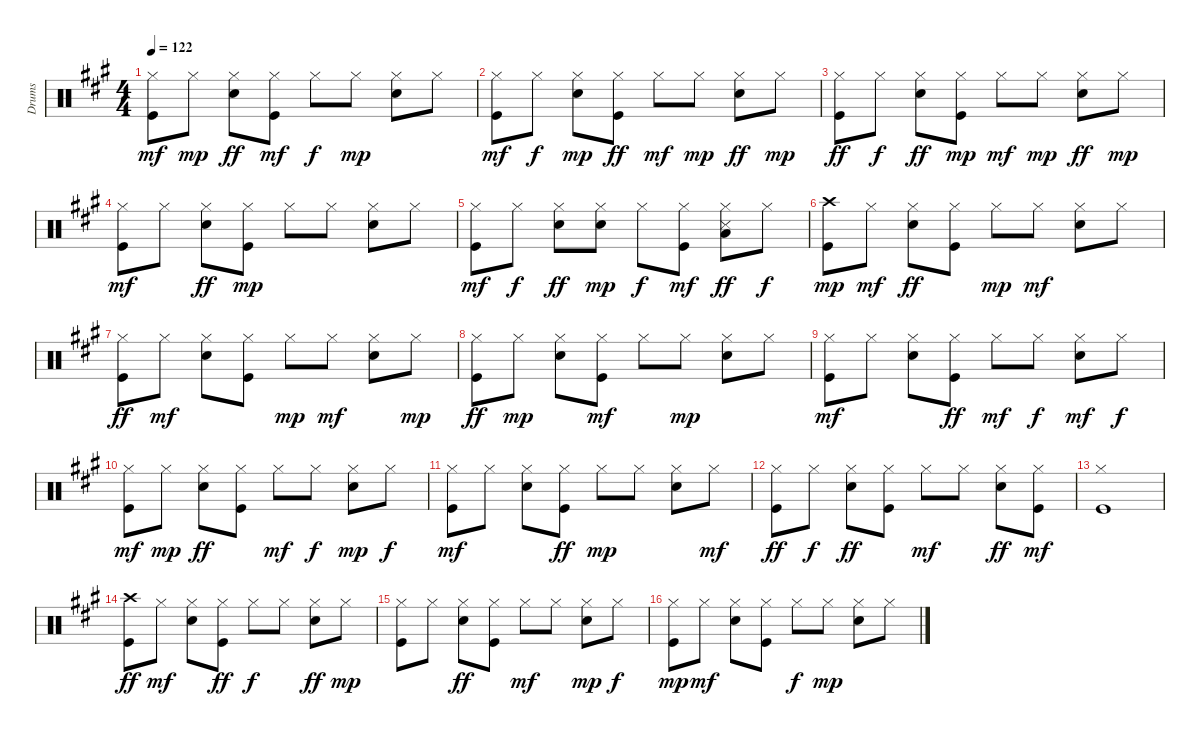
\track ("Drums" "Drums") {instrument percussion}
\staff {score}
\articulation defaults
\ts (4 4)
\tempo 122
\clef neutral
\ks a
("Kick (hit)" "Hi-Hat (closed)").8{dy mf} "Hi-Hat (closed)".8{dy mp} ("Electric Snare (hit)" "Hi-Hat (closed)").8{dy ff} ("Kick (hit)" "Hi-Hat (closed)").8{dy mf} "Hi-Hat (closed)".8{dy f} "Hi-Hat (closed)".8{dy mp} ("Electric Snare (hit)" "Hi-Hat (closed)").8 "Hi-Hat (closed)".8 |
("Kick (hit)" "Hi-Hat (closed)").8{dy mf} "Hi-Hat (closed)".8{dy f} ("Electric Snare (hit)" "Hi-Hat (closed)").8{dy mp} ("Kick (hit)" "Hi-Hat (closed)").8{dy ff} "Hi-Hat (closed)".8{dy mf} "Hi-Hat (closed)".8{dy mp} ("Electric Snare (hit)" "Hi-Hat (closed)").8{dy ff} "Hi-Hat (closed)".8{dy mp} |
("Kick (hit)" "Hi-Hat (closed)").8{dy ff} "Hi-Hat (closed)".8{dy f} ("Electric Snare (hit)" "Hi-Hat (closed)").8{dy ff} ("Kick (hit)" "Hi-Hat (closed)").8{dy mp} "Hi-Hat (closed)".8{dy mf} "Hi-Hat (closed)".8{dy mp} ("Electric Snare (hit)" "Hi-Hat (closed)").8{dy ff} "Hi-Hat (closed)".8{dy mp} |
("Kick (hit)" "Hi-Hat (closed)").8{dy mf} "Hi-Hat (closed)".8 ("Electric Snare (hit)" "Hi-Hat (closed)").8{dy ff} ("Kick (hit)" "Hi-Hat (closed)").8{dy mp} "Hi-Hat (closed)".8 "Hi-Hat (closed)".8 ("Electric Snare (hit)" "Hi-Hat (closed)").8 "Hi-Hat (closed)".8 |
("Kick (hit)" "Hi-Hat (closed)").8{dy mf} "Hi-Hat (closed)".8{dy f} ("Electric Snare (hit)" "Hi-Hat (closed)").8{dy ff} ("Electric Snare (hit)" "Hi-Hat (closed)").8{dy mp} "Hi-Hat (closed)".8{dy f} ("Kick (hit)" "Hi-Hat (closed)").8{dy mf} ("Snare (side stick) 3" "Hi-Hat (closed)" "Low Tom (hit)").8{dy ff} "Hi-Hat (closed)".8{dy f} |
("Kick (hit)" "Crash high (hit)").8{dy mp} "Hi-Hat (closed)".8{dy mf} ("Electric Snare (hit)" "Hi-Hat (closed)").8{dy ff} ("Kick (hit)" "Hi-Hat (closed)").8 "Hi-Hat (closed)".8{dy mp} "Hi-Hat (closed)".8{dy mf} ("Electric Snare (hit)" "Hi-Hat (closed)").8 "Hi-Hat (closed)".8 |
("Kick (hit)" "Hi-Hat (closed)").8{dy ff} "Hi-Hat (closed)".8{dy mf} ("Electric Snare (hit)" "Hi-Hat (closed)").8 ("Kick (hit)" "Hi-Hat (closed)").8 "Hi-Hat (closed)".8{dy mp} "Hi-Hat (closed)".8{dy mf} ("Electric Snare (hit)" "Hi-Hat (closed)").8 "Hi-Hat (closed)".8{dy mp} |
("Kick (hit)" "Hi-Hat (closed)").8{dy ff} "Hi-Hat (closed)".8{dy mp} ("Electric Snare (hit)" "Hi-Hat (closed)").8 ("Kick (hit)" "Hi-Hat (closed)").8{dy mf} "Hi-Hat (closed)".8 "Hi-Hat (closed)".8{dy mp} ("Electric Snare (hit)" "Hi-Hat (closed)").8 "Hi-Hat (closed)".8 |
("Kick (hit)" "Hi-Hat (closed)").8{dy mf} "Hi-Hat (closed)".8 ("Electric Snare (hit)" "Hi-Hat (closed)").8 ("Kick (hit)" "Hi-Hat (closed)").8{dy ff} "Hi-Hat (closed)".8{dy mf} "Hi-Hat (closed)".8{dy f} ("Electric Snare (hit)" "Hi-Hat (closed)").8{dy mf} "Hi-Hat (closed)".8{dy f} |
("Kick (hit)" "Hi-Hat (closed)").8{dy mf} "Hi-Hat (closed)".8{dy mp} ("Electric Snare (hit)" "Hi-Hat (closed)").8{dy ff} ("Kick (hit)" "Hi-Hat (closed)").8 "Hi-Hat (closed)".8{dy mf} "Hi-Hat (closed)".8{dy f} ("Electric Snare (hit)" "Hi-Hat (closed)").8{dy mp} "Hi-Hat (closed)".8{dy f} |
("Kick (hit)" "Hi-Hat (closed)").8{dy mf} "Hi-Hat (closed)".8 ("Electric Snare (hit)" "Hi-Hat (closed)").8 ("Kick (hit)" "Hi-Hat (closed)").8{dy ff} "Hi-Hat (closed)".8{dy mp} "Hi-Hat (closed)".8 ("Electric Snare (hit)" "Hi-Hat (closed)").8 "Hi-Hat (closed)".8{dy mf} |
("Kick (hit)" "Hi-Hat (closed)").8{dy ff} "Hi-Hat (closed)".8{dy f} ("Electric Snare (hit)" "Hi-Hat (closed)").8{dy ff} ("Kick (hit)" "Hi-Hat (closed)").8 "Hi-Hat (closed)".8{dy mf} "Hi-Hat (closed)".8 ("Electric Snare (hit)" "Hi-Hat (closed)").8{dy ff} ("Kick (hit)" "Hi-Hat (closed)").8{dy mf} |
("Kick (hit)" "Hi-Hat (closed)").1 |
("Kick (hit)" "Crash high (hit)").8{dy ff} "Hi-Hat (closed)".8{dy mf} ("Electric Snare (hit)" "Hi-Hat (closed)").8 ("Kick (hit)" "Hi-Hat (closed)").8{dy ff} "Hi-Hat (closed)".8{dy f} "Hi-Hat (closed)".8 ("Electric Snare (hit)" "Hi-Hat (closed)").8{dy ff} "Hi-Hat (closed)".8{dy mp} |
("Kick (hit)" "Hi-Hat (closed)").8 "Hi-Hat (closed)".8 ("Electric Snare (hit)" "Hi-Hat (closed)").8{dy ff} ("Kick (hit)" "Hi-Hat (closed)").8 "Hi-Hat (closed)".8{dy mf} "Hi-Hat (closed)".8 ("Electric Snare (hit)" "Hi-Hat (closed)").8{dy mp} "Hi-Hat (closed)".8{dy f} |
("Kick (hit)" "Hi-Hat (closed)").8{dy mp} "Hi-Hat (closed)".8{dy mf} ("Electric Snare (hit)" "Hi-Hat (closed)").8 ("Kick (hit)" "Hi-Hat (closed)").8 "Hi-Hat (closed)".8{dy f} "Hi-Hat (closed)".8{dy mp} ("Electric Snare (hit)" "Hi-Hat (closed)").8 "Hi-Hat (closed)".8
